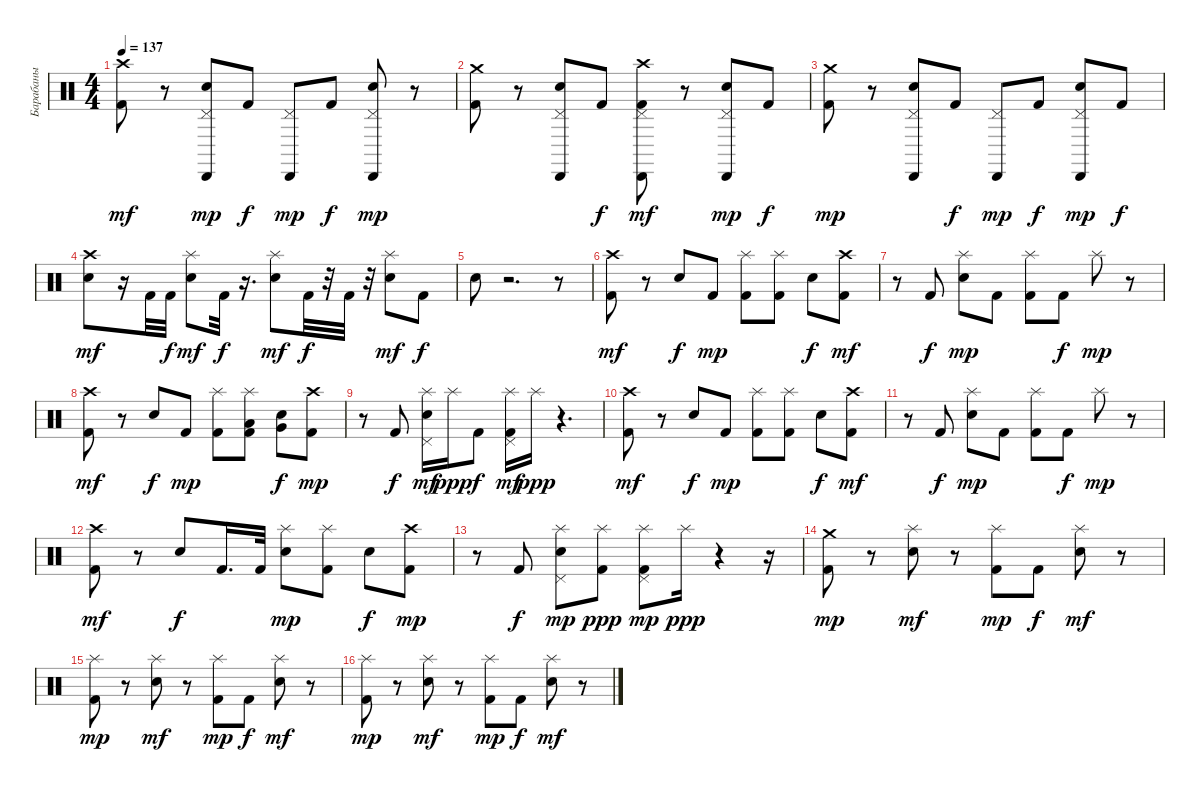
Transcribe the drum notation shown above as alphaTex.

\track ("Барабаны" "Барабаны") {instrument percussion}
\staff {score}
\articulation defaults
\ts (4 4)
\tempo 137
\clef neutral
\ks c
("Crash high (hit)" "Kick (hit) 2").8{dy mf} r.8 ("Cabasa (hit)" "Pedal Hi-Hat (hit)" "Electric Snare (hit)").8{dy mp} "Kick (hit) 2".8{dy f} ("Cabasa (hit)" "Pedal Hi-Hat (hit)").8{dy mp} "Kick (hit) 2".8{dy f} ("Cabasa (hit)" "Pedal Hi-Hat (hit)" "Electric Snare (hit)").8{dy mp} r.8 |
("Crash medium (hit)" "Kick (hit) 2").8 r.8 ("Cabasa (hit)" "Pedal Hi-Hat (hit)" "Electric Snare (hit)").8 "Kick (hit) 2".8{dy f} ("Cabasa (hit)" "Crash high (hit)" "Pedal Hi-Hat (hit)" "Kick (hit) 2").8{dy mf} r.8 ("Cabasa (hit)" "Pedal Hi-Hat (hit)" "Electric Snare (hit)").8{dy mp} "Kick (hit) 2".8{dy f} |
("Crash medium (hit)" "Kick (hit) 2").8{dy mp} r.8 ("Cabasa (hit)" "Pedal Hi-Hat (hit)" "Electric Snare (hit)").8 "Kick (hit) 2".8{dy f} ("Cabasa (hit)" "Pedal Hi-Hat (hit)").8{dy mp} "Kick (hit) 2".8{dy f} ("Cabasa (hit)" "Pedal Hi-Hat (hit)" "Electric Snare (hit)").8{dy mp} "Kick (hit) 2".8{dy f} |
("Crash high (hit)" "Electric Snare (hit)").8{dy mf} r.16 "Kick (hit) 2".32 "Kick (hit) 2".32{dy f} ("Splash (hit)" "Electric Snare (hit)").8{dy mf} "Kick (hit) 2".32{dy f} r.16{d} ("Splash (hit)" "Electric Snare (hit)").8{dy mf} "Kick (hit) 2".32{dy f} r.32 "Kick (hit) 2".32 r.32 ("Splash (hit)" "Electric Snare (hit)").8{dy mf} "Kick (hit) 2".8{dy f} |
"Electric Snare (hit)".8 r.2{d} r.8 |
("Crash high (hit)" "Kick (hit) 2").8{dy mf} r.8 "Electric Snare (hit)".8{dy f} "Kick (hit) 2".8{dy mp} ("Splash (hit)" "Kick (hit) 2").8 ("Splash (hit)" "Kick (hit) 2").8 "Electric Snare (hit)".8{dy f} ("Crash high (hit)" "Kick (hit) 2").8{dy mf} |
r.8 "Kick (hit) 2".8{dy f} ("Splash (hit)" "Electric Snare (hit)").8{dy mp} "Kick (hit) 2".8 ("Splash (hit)" "Kick (hit) 2").8 "Kick (hit) 2".8{dy f} "Splash (hit)".8{dy mp} r.8 |
("Crash high (hit)" "Kick (hit) 2").8{dy mf} r.8 "Electric Snare (hit)".8{dy f} "Kick (hit) 2".8{dy mp} ("Splash (hit)" "Kick (hit) 2").8 ("Splash (hit)" "Low Tom (hit)" "Kick (hit) 2").8 ("Very Low Tom (hit)" "Electric Snare (hit)").8{dy f} ("Crash high (hit)" "Kick (hit) 2").8{dy mp} |
r.8 "Kick (hit) 2".8{dy f} ("Splash (hit)" "Pedal Hi-Hat (hit)" "Electric Snare (hit)").16{dy mf} "Splash (hit)".16{dy ppp} "Kick (hit) 2".8{dy f} ("Splash (hit)" "Pedal Hi-Hat (hit)" "Kick (hit) 2").16{dy mf} "Splash (hit)".16{dy ppp} r.4{d} |
("Crash high (hit)" "Kick (hit) 2").8{dy mf} r.8 "Electric Snare (hit)".8{dy f} "Kick (hit) 2".8{dy mp} ("Splash (hit)" "Kick (hit) 2").8 ("Splash (hit)" "Kick (hit) 2").8 "Electric Snare (hit)".8{dy f} ("Crash high (hit)" "Kick (hit) 2").8{dy mf} |
r.8 "Kick (hit) 2".8{dy f} ("Splash (hit)" "Electric Snare (hit)").8{dy mp} "Kick (hit) 2".8 ("Splash (hit)" "Kick (hit) 2").8 "Kick (hit) 2".8{dy f} "Splash (hit)".8{dy mp} r.8 |
("Crash high (hit)" "Kick (hit) 2").8{dy mf} r.8 "Electric Snare (hit)".8{dy f} "Kick (hit) 2".16{d} "Kick (hit) 2".32 ("Electric Snare (hit)" "Splash (hit)").8{dy mp} ("Splash (hit)" "Kick (hit) 2").8 "Electric Snare (hit)".8{dy f} ("Crash high (hit)" "Kick (hit) 2").8{dy mp} |
r.8 "Kick (hit) 2".8{dy f} ("Splash (hit)" "Pedal Hi-Hat (hit)" "Electric Snare (hit)").8{dy mp} ("Splash (hit)" "Kick (hit) 2").8{dy ppp} ("Splash (hit)" "Pedal Hi-Hat (hit)" "Kick (hit) 2").8{dy mp} "Splash (hit)".16{dy ppp} r.4 r.16 |
("Crash medium (hit)" "Kick (hit) 2").8{dy mp} r.8 ("Splash (hit)" "Electric Snare (hit)").8{dy mf} r.8 ("Splash (hit)" "Kick (hit) 2").8{dy mp} "Kick (hit) 2".8{dy f} ("Splash (hit)" "Electric Snare (hit)").8{dy mf} r.8 |
("Splash (hit)" "Kick (hit) 2").8{dy mp} r.8 ("Splash (hit)" "Electric Snare (hit)").8{dy mf} r.8 ("Splash (hit)" "Kick (hit) 2").8{dy mp} "Kick (hit) 2".8{dy f} ("Splash (hit)" "Electric Snare (hit)").8{dy mf} r.8 |
("Splash (hit)" "Kick (hit) 2").8{dy mp} r.8 ("Splash (hit)" "Electric Snare (hit)").8{dy mf} r.8 ("Splash (hit)" "Kick (hit) 2").8{dy mp} "Kick (hit) 2".8{dy f} ("Splash (hit)" "Electric Snare (hit)").8{dy mf} r.8
